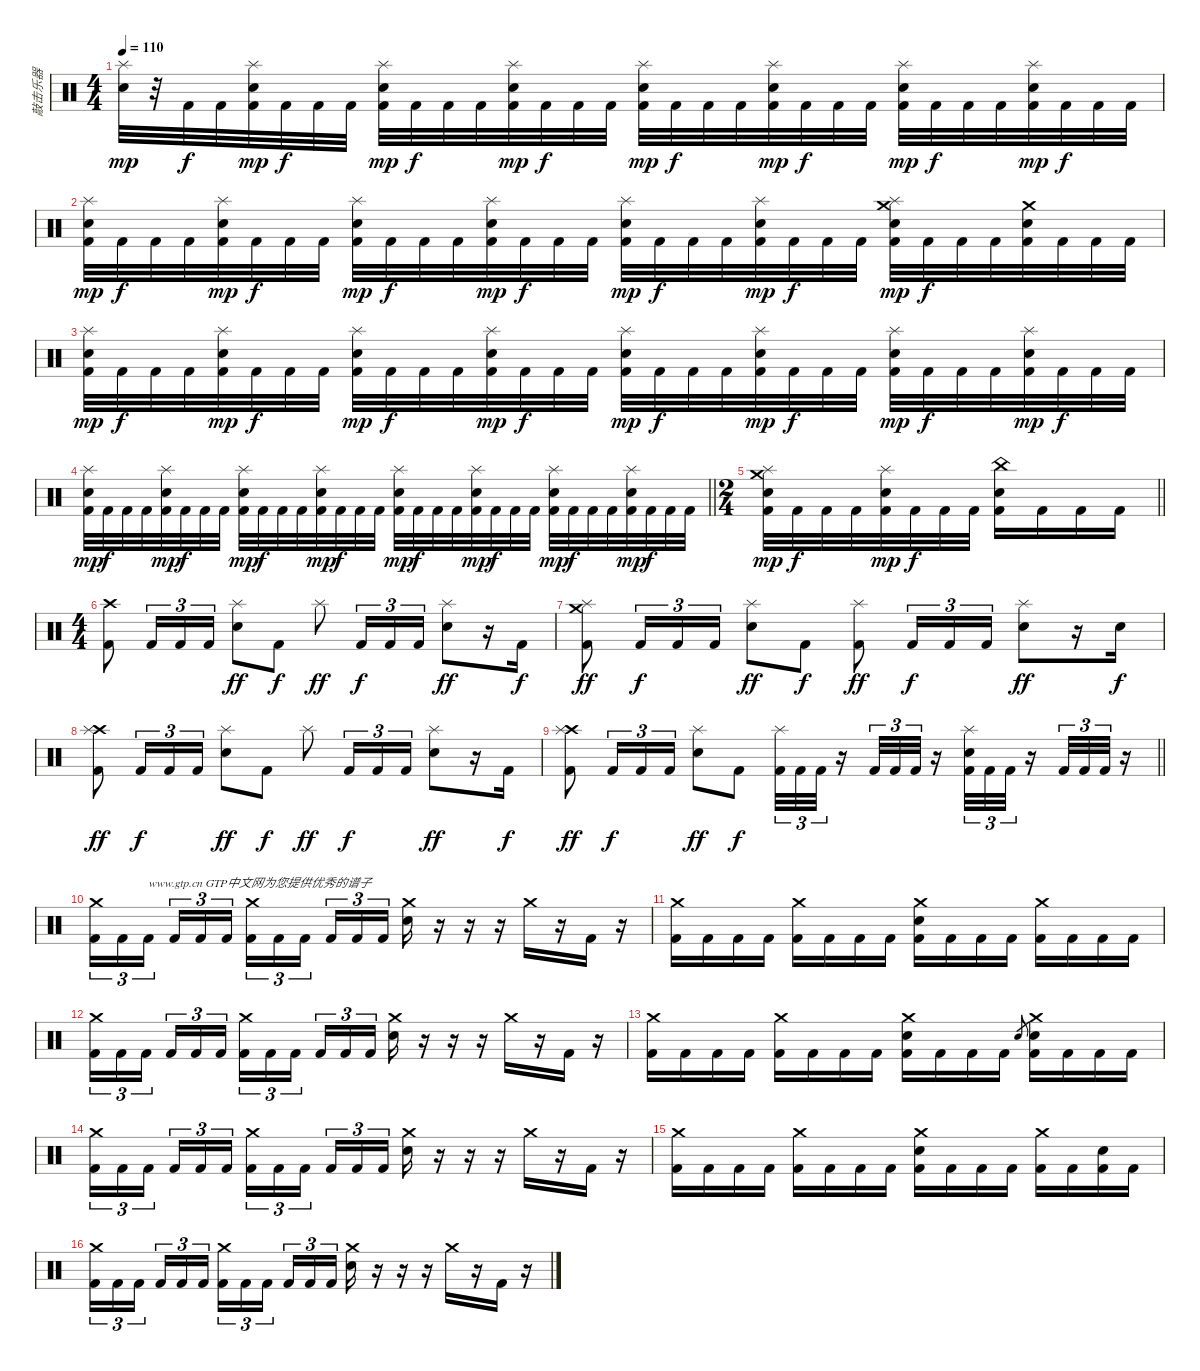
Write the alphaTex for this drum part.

\track ("敲击乐器" "敲击乐器") {instrument percussion}
\staff {score}
\articulation defaults
\ts (4 4)
\section ("" " ")
\tempo 110
\clef neutral
\ks c
("Splash (hit)" "Snare (hit) 2").32{dy mp} r.32 "Kick (hit) 2".32{dy f} "Kick (hit) 2".32 ("Splash (hit)" "Snare (hit) 2" "Kick (hit) 2").32{dy mp} "Kick (hit) 2".32{dy f} "Kick (hit) 2".32 "Kick (hit) 2".32 ("Splash (hit)" "Snare (hit) 2" "Kick (hit) 2").32{dy mp} "Kick (hit) 2".32{dy f} "Kick (hit) 2".32 "Kick (hit) 2".32 ("Splash (hit)" "Snare (hit) 2" "Kick (hit) 2").32{dy mp} "Kick (hit) 2".32{dy f} "Kick (hit) 2".32 "Kick (hit) 2".32 ("Splash (hit)" "Snare (hit) 2" "Kick (hit) 2").32{dy mp} "Kick (hit) 2".32{dy f} "Kick (hit) 2".32 "Kick (hit) 2".32 ("Splash (hit)" "Snare (hit) 2" "Kick (hit) 2").32{dy mp} "Kick (hit) 2".32{dy f} "Kick (hit) 2".32 "Kick (hit) 2".32 ("Splash (hit)" "Snare (hit) 2" "Kick (hit) 2").32{dy mp} "Kick (hit) 2".32{dy f} "Kick (hit) 2".32 "Kick (hit) 2".32 ("Splash (hit)" "Snare (hit) 2" "Kick (hit) 2").32{dy mp} "Kick (hit) 2".32{dy f} "Kick (hit) 2".32 "Kick (hit) 2".32 |
("Splash (hit)" "Snare (hit) 2" "Kick (hit) 2").32{dy mp} "Kick (hit) 2".32{dy f} "Kick (hit) 2".32 "Kick (hit) 2".32 ("Splash (hit)" "Snare (hit) 2" "Kick (hit) 2").32{dy mp} "Kick (hit) 2".32{dy f} "Kick (hit) 2".32 "Kick (hit) 2".32 ("Splash (hit)" "Snare (hit) 2" "Kick (hit) 2").32{dy mp} "Kick (hit) 2".32{dy f} "Kick (hit) 2".32 "Kick (hit) 2".32 ("Splash (hit)" "Snare (hit) 2" "Kick (hit) 2").32{dy mp} "Kick (hit) 2".32{dy f} "Kick (hit) 2".32 "Kick (hit) 2".32 ("Splash (hit)" "Snare (hit) 2" "Kick (hit) 2").32{dy mp} "Kick (hit) 2".32{dy f} "Kick (hit) 2".32 "Kick (hit) 2".32 ("Splash (hit)" "Snare (hit) 2" "Kick (hit) 2").32{dy mp} "Kick (hit) 2".32{dy f} "Kick (hit) 2".32 "Kick (hit) 2".32 ("Crash medium (hit)" "Splash (hit)" "Snare (hit) 2" "Kick (hit) 2").32{dy mp} "Kick (hit) 2".32{dy f} "Kick (hit) 2".32 "Kick (hit) 2".32 ("Crash medium (hit)" "Snare (hit) 2" "Kick (hit) 2").32 "Kick (hit) 2".32 "Kick (hit) 2".32 "Kick (hit) 2".32 |
("Splash (hit)" "Snare (hit) 2" "Kick (hit) 2").32{dy mp} "Kick (hit) 2".32{dy f} "Kick (hit) 2".32 "Kick (hit) 2".32 ("Splash (hit)" "Snare (hit) 2" "Kick (hit) 2").32{dy mp} "Kick (hit) 2".32{dy f} "Kick (hit) 2".32 "Kick (hit) 2".32 ("Splash (hit)" "Snare (hit) 2" "Kick (hit) 2").32{dy mp} "Kick (hit) 2".32{dy f} "Kick (hit) 2".32 "Kick (hit) 2".32 ("Splash (hit)" "Snare (hit) 2" "Kick (hit) 2").32{dy mp} "Kick (hit) 2".32{dy f} "Kick (hit) 2".32 "Kick (hit) 2".32 ("Splash (hit)" "Snare (hit) 2" "Kick (hit) 2").32{dy mp} "Kick (hit) 2".32{dy f} "Kick (hit) 2".32 "Kick (hit) 2".32 ("Splash (hit)" "Snare (hit) 2" "Kick (hit) 2").32{dy mp} "Kick (hit) 2".32{dy f} "Kick (hit) 2".32 "Kick (hit) 2".32 ("Splash (hit)" "Snare (hit) 2" "Kick (hit) 2").32{dy mp} "Kick (hit) 2".32{dy f} "Kick (hit) 2".32 "Kick (hit) 2".32 ("Splash (hit)" "Snare (hit) 2" "Kick (hit) 2").32{dy mp} "Kick (hit) 2".32{dy f} "Kick (hit) 2".32 "Kick (hit) 2".32 |
\barLineRight lightlight
("Splash (hit)" "Snare (hit) 2" "Kick (hit) 2").32{dy mp} "Kick (hit) 2".32{dy f} "Kick (hit) 2".32 "Kick (hit) 2".32 ("Splash (hit)" "Snare (hit) 2" "Kick (hit) 2").32{dy mp} "Kick (hit) 2".32{dy f} "Kick (hit) 2".32 "Kick (hit) 2".32 ("Splash (hit)" "Snare (hit) 2" "Kick (hit) 2").32{dy mp} "Kick (hit) 2".32{dy f} "Kick (hit) 2".32 "Kick (hit) 2".32 ("Splash (hit)" "Snare (hit) 2" "Kick (hit) 2").32{dy mp} "Kick (hit) 2".32{dy f} "Kick (hit) 2".32 "Kick (hit) 2".32 ("Splash (hit)" "Snare (hit) 2" "Kick (hit) 2").32{dy mp} "Kick (hit) 2".32{dy f} "Kick (hit) 2".32 "Kick (hit) 2".32 ("Splash (hit)" "Snare (hit) 2" "Kick (hit) 2").32{dy mp} "Kick (hit) 2".32{dy f} "Kick (hit) 2".32 "Kick (hit) 2".32 ("Splash (hit)" "Snare (hit) 2" "Kick (hit) 2").32{dy mp} "Kick (hit) 2".32{dy f} "Kick (hit) 2".32 "Kick (hit) 2".32 ("Splash (hit)" "Snare (hit) 2" "Kick (hit) 2").32{dy mp} "Kick (hit) 2".32{dy f} "Kick (hit) 2".32 "Kick (hit) 2".32 |
\ts (2 4)
\barLineRight lightlight
("Crash medium (hit)" "Splash (hit)" "Snare (hit) 2" "Kick (hit) 2").32{dy mp} "Kick (hit) 2".32{dy f} "Kick (hit) 2".32 "Kick (hit) 2".32 ("Splash (hit)" "Snare (hit) 2" "Kick (hit) 2").32{dy mp} "Kick (hit) 2".32{dy f} "Kick (hit) 2".32 "Kick (hit) 2".32 ("China (hit)" "Snare (hit) 2" "Kick (hit) 2").16 "Kick (hit) 2".16 "Kick (hit) 2".16 "Kick (hit) 2".16 |
\ts (4 4)
\section ("" "")
("Crash high (hit)" "Kick (hit) 2").8 "Kick (hit) 2".16{tu (3 2)} "Kick (hit) 2".16{tu (3 2)} "Kick (hit) 2".16{tu (3 2)} ("Splash (hit)" "Snare (hit) 2").8{dy ff} "Kick (hit) 2".8{dy f} "Splash (hit)".8{dy ff} "Kick (hit) 2".16{tu (3 2) dy f} "Kick (hit) 2".16{tu (3 2)} "Kick (hit) 2".16{tu (3 2)} ("Splash (hit)" "Snare (hit) 2").8{dy ff} r.16 "Kick (hit) 2".16{dy f} |
("Crash medium (hit)" "Splash (hit)" "Kick (hit) 2").8{dy ff} "Kick (hit) 2".16{tu (3 2) dy f} "Kick (hit) 2".16{tu (3 2)} "Kick (hit) 2".16{tu (3 2)} ("Splash (hit)" "Snare (hit) 2").8{dy ff} "Kick (hit) 2".8{dy f} ("Splash (hit)" "Kick (hit) 2").8{dy ff} "Kick (hit) 2".16{tu (3 2) dy f} "Kick (hit) 2".16{tu (3 2)} "Kick (hit) 2".16{tu (3 2)} ("Splash (hit)" "Snare (hit) 2").8{dy ff} r.16 "Snare (hit) 2".16{dy f} |
("Crash high (hit)" "Splash (hit)" "Kick (hit) 2").8{dy ff} "Kick (hit) 2".16{tu (3 2) dy f} "Kick (hit) 2".16{tu (3 2)} "Kick (hit) 2".16{tu (3 2)} ("Splash (hit)" "Snare (hit) 2").8{dy ff} "Kick (hit) 2".8{dy f} "Splash (hit)".8{dy ff} "Kick (hit) 2".16{tu (3 2) dy f} "Kick (hit) 2".16{tu (3 2)} "Kick (hit) 2".16{tu (3 2)} ("Splash (hit)" "Snare (hit) 2").8{dy ff} r.16 "Kick (hit) 2".16{dy f} |
\barLineRight lightlight
("Crash high (hit)" "Splash (hit)" "Kick (hit) 2").8{dy ff} "Kick (hit) 2".16{tu (3 2) dy f} "Kick (hit) 2".16{tu (3 2)} "Kick (hit) 2".16{tu (3 2)} ("Splash (hit)" "Snare (hit) 2").8{dy ff} "Kick (hit) 2".8{dy f} ("Splash (hit)" "Kick (hit) 2").32{tu (3 2)} "Kick (hit) 2".32{tu (3 2)} "Kick (hit) 2".32{tu (3 2)} r.16 "Kick (hit) 2".32{tu (3 2)} "Kick (hit) 2".32{tu (3 2)} "Kick (hit) 2".32{tu (3 2)} r.16 ("Splash (hit)" "Snare (hit) 2" "Kick (hit) 2").32{tu (3 2)} "Kick (hit) 2".32{tu (3 2)} "Kick (hit) 2".32{tu (3 2)} r.16 "Kick (hit) 2".32{tu (3 2)} "Kick (hit) 2".32{tu (3 2)} "Kick (hit) 2".32{tu (3 2)} r.16 |
\section ("" "")
("Crash medium (hit)" "Kick (hit) 2").16{tu (3 2)} "Kick (hit) 2".16{tu (3 2)} "Kick (hit) 2".16{tu (3 2) txt "www.gtp.cn GTP中文网为您提供优秀的谱子" beam splitsecondary} "Kick (hit) 2".16{tu (3 2)} "Kick (hit) 2".16{tu (3 2)} "Kick (hit) 2".16{tu (3 2)} ("Crash medium (hit)" "Kick (hit) 2").16{tu (3 2)} "Kick (hit) 2".16{tu (3 2)} "Kick (hit) 2".16{tu (3 2) beam splitsecondary} "Kick (hit) 2".16{tu (3 2)} "Kick (hit) 2".16{tu (3 2)} "Kick (hit) 2".16{tu (3 2)} ("Crash medium (hit)" "Snare (hit) 2").16 r.16 r.16 r.16 "Crash medium (hit)".16 r.16 "Kick (hit) 2".16 r.16 |
("Crash medium (hit)" "Kick (hit) 2").16 "Kick (hit) 2".16 "Kick (hit) 2".16 "Kick (hit) 2".16 ("Crash medium (hit)" "Kick (hit) 2").16 "Kick (hit) 2".16 "Kick (hit) 2".16 "Kick (hit) 2".16 ("Crash medium (hit)" "Snare (hit) 2" "Kick (hit) 2").16 "Kick (hit) 2".16 "Kick (hit) 2".16 "Kick (hit) 2".16 ("Crash medium (hit)" "Kick (hit) 2").16 "Kick (hit) 2".16 "Kick (hit) 2".16 "Kick (hit) 2".16 |
("Crash medium (hit)" "Kick (hit) 2").16{tu (3 2)} "Kick (hit) 2".16{tu (3 2)} "Kick (hit) 2".16{tu (3 2) beam splitsecondary} "Kick (hit) 2".16{tu (3 2)} "Kick (hit) 2".16{tu (3 2)} "Kick (hit) 2".16{tu (3 2)} ("Crash medium (hit)" "Kick (hit) 2").16{tu (3 2)} "Kick (hit) 2".16{tu (3 2)} "Kick (hit) 2".16{tu (3 2) beam splitsecondary} "Kick (hit) 2".16{tu (3 2)} "Kick (hit) 2".16{tu (3 2)} "Kick (hit) 2".16{tu (3 2)} ("Crash medium (hit)" "Snare (hit) 2").16 r.16 r.16 r.16 "Crash medium (hit)".16 r.16 "Kick (hit) 2".16 r.16 |
("Crash medium (hit)" "Kick (hit) 2").16 "Kick (hit) 2".16 "Kick (hit) 2".16 "Kick (hit) 2".16 ("Crash medium (hit)" "Kick (hit) 2").16 "Kick (hit) 2".16 "Kick (hit) 2".16 "Kick (hit) 2".16 ("Crash medium (hit)" "Snare (hit) 2" "Kick (hit) 2").16 "Kick (hit) 2".16 "Kick (hit) 2".16 "Kick (hit) 2".16 "Snare (hit) 2".8{gr} ("Crash medium (hit)" "Snare (hit) 2" "Kick (hit) 2").16 "Kick (hit) 2".16 "Kick (hit) 2".16 "Kick (hit) 2".16 |
("Crash medium (hit)" "Kick (hit) 2").16{tu (3 2)} "Kick (hit) 2".16{tu (3 2)} "Kick (hit) 2".16{tu (3 2) beam splitsecondary} "Kick (hit) 2".16{tu (3 2)} "Kick (hit) 2".16{tu (3 2)} "Kick (hit) 2".16{tu (3 2)} ("Crash medium (hit)" "Kick (hit) 2").16{tu (3 2)} "Kick (hit) 2".16{tu (3 2)} "Kick (hit) 2".16{tu (3 2) beam splitsecondary} "Kick (hit) 2".16{tu (3 2)} "Kick (hit) 2".16{tu (3 2)} "Kick (hit) 2".16{tu (3 2)} ("Crash medium (hit)" "Snare (hit) 2").16 r.16 r.16 r.16 "Crash medium (hit)".16 r.16 "Kick (hit) 2".16 r.16 |
("Crash medium (hit)" "Kick (hit) 2").16 "Kick (hit) 2".16 "Kick (hit) 2".16 "Kick (hit) 2".16 ("Crash medium (hit)" "Kick (hit) 2").16 "Kick (hit) 2".16 "Kick (hit) 2".16 "Kick (hit) 2".16 ("Crash medium (hit)" "Snare (hit) 2" "Kick (hit) 2").16 "Kick (hit) 2".16 "Kick (hit) 2".16 "Kick (hit) 2".16 ("Crash medium (hit)" "Kick (hit) 2").16 "Kick (hit) 2".16 ("Snare (hit) 2" "Kick (hit) 2").16 "Kick (hit) 2".16 |
("Crash medium (hit)" "Kick (hit) 2").16{tu (3 2)} "Kick (hit) 2".16{tu (3 2)} "Kick (hit) 2".16{tu (3 2) beam splitsecondary} "Kick (hit) 2".16{tu (3 2)} "Kick (hit) 2".16{tu (3 2)} "Kick (hit) 2".16{tu (3 2)} ("Crash medium (hit)" "Kick (hit) 2").16{tu (3 2)} "Kick (hit) 2".16{tu (3 2)} "Kick (hit) 2".16{tu (3 2) beam splitsecondary} "Kick (hit) 2".16{tu (3 2)} "Kick (hit) 2".16{tu (3 2)} "Kick (hit) 2".16{tu (3 2)} ("Crash medium (hit)" "Snare (hit) 2").16 r.16 r.16 r.16 "Crash medium (hit)".16 r.16 "Kick (hit) 2".16 r.16
